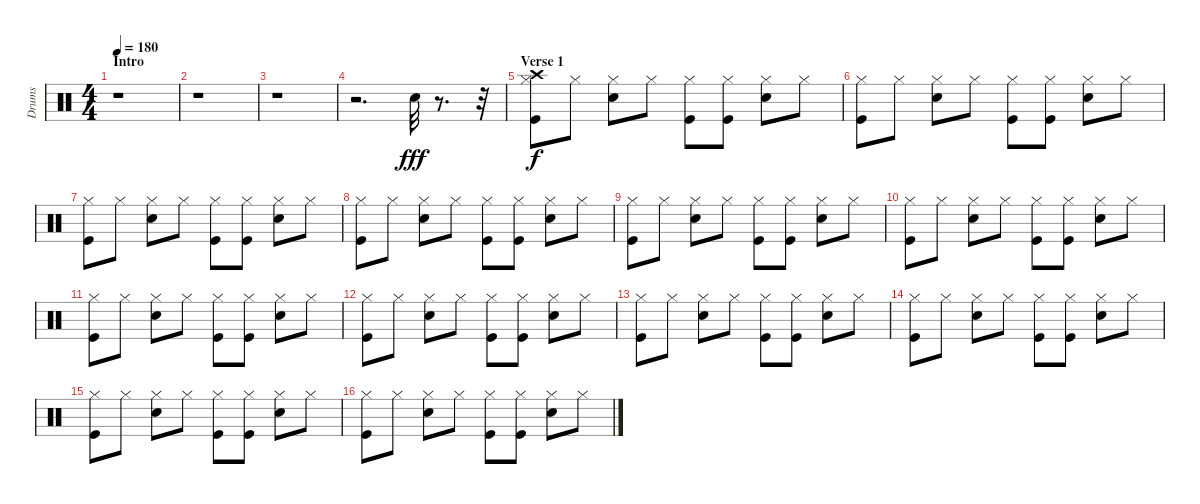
\track ("Drums" "Drums") {instrument percussion}
\staff {score}
\articulation defaults
\ts (4 4)
\section ("" "Intro")
\tempo 180
\clef neutral
\ks c
r.1{dy fff} |
r.1 |
r.1 |
r.2{d} "Electric Snare (hit)".32 r.8{d} r.32 |
\section ("" "Verse 1")
("Crash high (hit)" "Hi-Hat (closed)" "Kick (hit)").8{dy f} "Hi-Hat (closed)".8 ("Hi-Hat (closed)" "Electric Snare (hit)").8 "Hi-Hat (closed)".8 ("Kick (hit)" "Hi-Hat (closed)").8 ("Hi-Hat (closed)" "Kick (hit)").8 ("Hi-Hat (closed)" "Electric Snare (hit)").8 "Hi-Hat (closed)".8 |
("Hi-Hat (closed)" "Kick (hit)").8 "Hi-Hat (closed)".8 ("Hi-Hat (closed)" "Electric Snare (hit)").8 "Hi-Hat (closed)".8 ("Kick (hit)" "Hi-Hat (closed)").8 ("Hi-Hat (closed)" "Kick (hit)").8 ("Hi-Hat (closed)" "Electric Snare (hit)").8 "Hi-Hat (closed)".8 |
("Hi-Hat (closed)" "Kick (hit)").8 "Hi-Hat (closed)".8 ("Hi-Hat (closed)" "Electric Snare (hit)").8 "Hi-Hat (closed)".8 ("Kick (hit)" "Hi-Hat (closed)").8 ("Hi-Hat (closed)" "Kick (hit)").8 ("Hi-Hat (closed)" "Electric Snare (hit)").8 "Hi-Hat (closed)".8 |
("Hi-Hat (closed)" "Kick (hit)").8 "Hi-Hat (closed)".8 ("Hi-Hat (closed)" "Electric Snare (hit)").8 "Hi-Hat (closed)".8 ("Kick (hit)" "Hi-Hat (closed)").8 ("Hi-Hat (closed)" "Kick (hit)").8 ("Hi-Hat (closed)" "Electric Snare (hit)").8 "Hi-Hat (closed)".8 |
("Hi-Hat (closed)" "Kick (hit)").8 "Hi-Hat (closed)".8 ("Hi-Hat (closed)" "Electric Snare (hit)").8 "Hi-Hat (closed)".8 ("Kick (hit)" "Hi-Hat (closed)").8 ("Hi-Hat (closed)" "Kick (hit)").8 ("Hi-Hat (closed)" "Electric Snare (hit)").8 "Hi-Hat (closed)".8 |
("Hi-Hat (closed)" "Kick (hit)").8 "Hi-Hat (closed)".8 ("Hi-Hat (closed)" "Electric Snare (hit)").8 "Hi-Hat (closed)".8 ("Kick (hit)" "Hi-Hat (closed)").8 ("Hi-Hat (closed)" "Kick (hit)").8 ("Hi-Hat (closed)" "Electric Snare (hit)").8 "Hi-Hat (closed)".8 |
("Hi-Hat (closed)" "Kick (hit)").8 "Hi-Hat (closed)".8 ("Hi-Hat (closed)" "Electric Snare (hit)").8 "Hi-Hat (closed)".8 ("Kick (hit)" "Hi-Hat (closed)").8 ("Hi-Hat (closed)" "Kick (hit)").8 ("Hi-Hat (closed)" "Electric Snare (hit)").8 "Hi-Hat (closed)".8 |
("Hi-Hat (closed)" "Kick (hit)").8 "Hi-Hat (closed)".8 ("Hi-Hat (closed)" "Electric Snare (hit)").8 "Hi-Hat (closed)".8 ("Kick (hit)" "Hi-Hat (closed)").8 ("Hi-Hat (closed)" "Kick (hit)").8 ("Hi-Hat (closed)" "Electric Snare (hit)").8 "Hi-Hat (closed)".8 |
("Hi-Hat (closed)" "Kick (hit)").8 "Hi-Hat (closed)".8 ("Hi-Hat (closed)" "Electric Snare (hit)").8 "Hi-Hat (closed)".8 ("Kick (hit)" "Hi-Hat (closed)").8 ("Hi-Hat (closed)" "Kick (hit)").8 ("Hi-Hat (closed)" "Electric Snare (hit)").8 "Hi-Hat (closed)".8 |
("Hi-Hat (closed)" "Kick (hit)").8 "Hi-Hat (closed)".8 ("Hi-Hat (closed)" "Electric Snare (hit)").8 "Hi-Hat (closed)".8 ("Kick (hit)" "Hi-Hat (closed)").8 ("Hi-Hat (closed)" "Kick (hit)").8 ("Hi-Hat (closed)" "Electric Snare (hit)").8 "Hi-Hat (closed)".8 |
("Hi-Hat (closed)" "Kick (hit)").8 "Hi-Hat (closed)".8 ("Hi-Hat (closed)" "Electric Snare (hit)").8 "Hi-Hat (closed)".8 ("Kick (hit)" "Hi-Hat (closed)").8 ("Hi-Hat (closed)" "Kick (hit)").8 ("Hi-Hat (closed)" "Electric Snare (hit)").8 "Hi-Hat (closed)".8 |
("Hi-Hat (closed)" "Kick (hit)").8 "Hi-Hat (closed)".8 ("Hi-Hat (closed)" "Electric Snare (hit)").8 "Hi-Hat (closed)".8 ("Kick (hit)" "Hi-Hat (closed)").8 ("Hi-Hat (closed)" "Kick (hit)").8 ("Hi-Hat (closed)" "Electric Snare (hit)").8 "Hi-Hat (closed)".8
